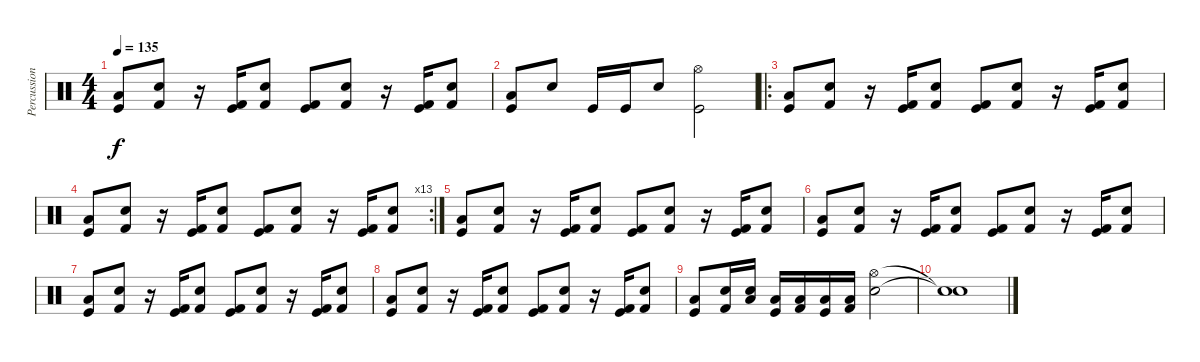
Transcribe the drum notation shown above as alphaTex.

\track ("Percussion" "Percussion") {instrument percussion}
\staff {score}
\articulation defaults
\ts (4 4)
\tempo 135
\clef neutral
\ks c
("Low Tom (hit)" "Kick (hit)").8{dy f} ("Kick (hit) 2" "Snare (hit) 2").8 r.16 ("Kick (hit) 2" "Kick (hit)").16 ("Kick (hit) 2" "Snare (hit) 2").8 ("Kick (hit) 2" "Kick (hit)").8 ("Kick (hit) 2" "Snare (hit) 2").8 r.16 ("Kick (hit) 2" "Kick (hit)").16 ("Kick (hit) 2" "Snare (hit) 2").8 |
("Low Tom (hit)" "Kick (hit)").8 "Snare (hit) 2".8 "Kick (hit)".16 "Kick (hit)".16 "Snare (hit) 2".8 ("Hi-Hat (open)" "Kick (hit)").2 |
\ro
("Low Tom (hit)" "Kick (hit)").8 ("Kick (hit) 2" "Snare (hit) 2").8 r.16 ("Kick (hit) 2" "Kick (hit)").16 ("Kick (hit) 2" "Snare (hit) 2").8 ("Kick (hit) 2" "Kick (hit)").8 ("Kick (hit) 2" "Snare (hit) 2").8 r.16 ("Kick (hit) 2" "Kick (hit)").16 ("Kick (hit) 2" "Snare (hit) 2").8 |
\rc 13
("Low Tom (hit)" "Kick (hit)").8 ("Kick (hit) 2" "Snare (hit) 2").8 r.16 ("Kick (hit) 2" "Kick (hit)").16 ("Kick (hit) 2" "Snare (hit) 2").8 ("Kick (hit) 2" "Kick (hit)").8 ("Kick (hit) 2" "Snare (hit) 2").8 r.16 ("Kick (hit) 2" "Kick (hit)").16 ("Kick (hit) 2" "Snare (hit) 2").8 |
("Low Tom (hit)" "Kick (hit)").8 ("Kick (hit) 2" "Snare (hit) 2").8 r.16 ("Kick (hit) 2" "Kick (hit)").16 ("Kick (hit) 2" "Snare (hit) 2").8 ("Kick (hit) 2" "Kick (hit)").8 ("Kick (hit) 2" "Snare (hit) 2").8 r.16 ("Kick (hit) 2" "Kick (hit)").16 ("Kick (hit) 2" "Snare (hit) 2").8 |
("Low Tom (hit)" "Kick (hit)").8 ("Kick (hit) 2" "Snare (hit) 2").8 r.16 ("Kick (hit) 2" "Kick (hit)").16 ("Kick (hit) 2" "Snare (hit) 2").8 ("Kick (hit) 2" "Kick (hit)").8 ("Kick (hit) 2" "Snare (hit) 2").8 r.16 ("Kick (hit) 2" "Kick (hit)").16 ("Kick (hit) 2" "Snare (hit) 2").8 |
("Low Tom (hit)" "Kick (hit)").8 ("Kick (hit) 2" "Snare (hit) 2").8 r.16 ("Kick (hit) 2" "Kick (hit)").16 ("Kick (hit) 2" "Snare (hit) 2").8 ("Kick (hit) 2" "Kick (hit)").8 ("Kick (hit) 2" "Snare (hit) 2").8 r.16 ("Kick (hit) 2" "Kick (hit)").16 ("Kick (hit) 2" "Snare (hit) 2").8 |
("Low Tom (hit)" "Kick (hit)").8 ("Kick (hit) 2" "Snare (hit) 2").8 r.16 ("Kick (hit) 2" "Kick (hit)").16 ("Kick (hit) 2" "Snare (hit) 2").8 ("Kick (hit) 2" "Kick (hit)").8 ("Kick (hit) 2" "Snare (hit) 2").8 r.16 ("Kick (hit) 2" "Kick (hit)").16 ("Kick (hit) 2" "Snare (hit) 2").8 |
("Low Tom (hit)" "Kick (hit)").8 ("Kick (hit) 2" "Snare (hit) 2").16 ("Low Tom (hit)" "Snare (hit) 2").16 ("Low Tom (hit)" "Kick (hit)").16 ("Low Tom (hit)" "Kick (hit) 2").16 ("Low Tom (hit)" "Kick (hit)").16 ("Low Tom (hit)" "Kick (hit) 2").16 ("Hi-Hat (open)" "Snare (hit) 2").2 |
("Snare (hit)"{t} "Snare (hit)"{t}).1
